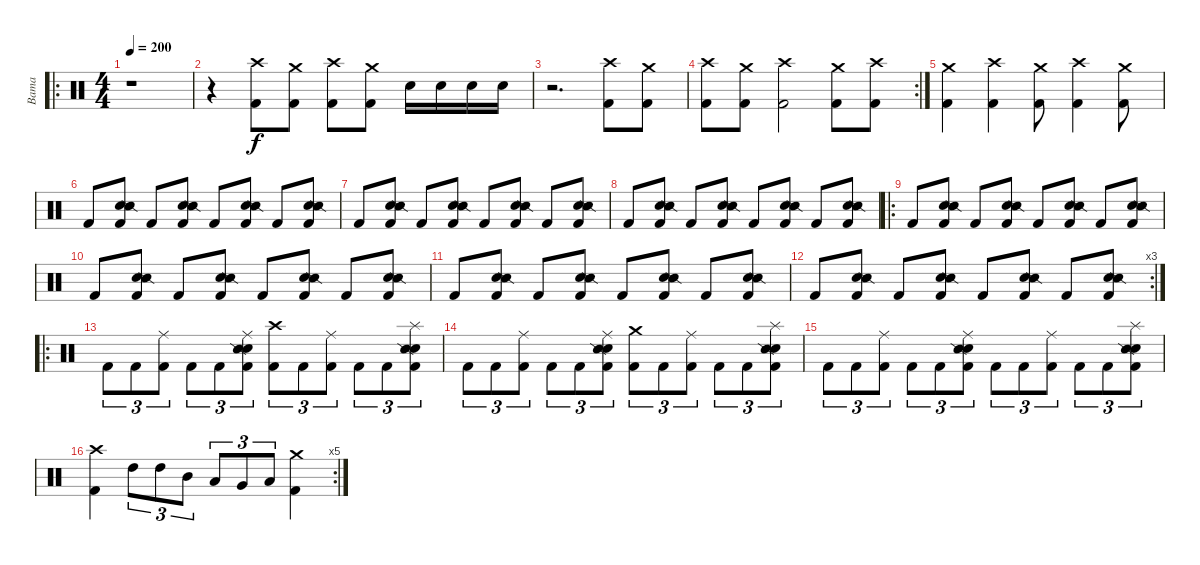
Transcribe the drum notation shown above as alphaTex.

\track ("Bama" "Bama") {instrument percussion}
\staff {score}
\articulation defaults
\ro
\ts (4 4)
\tempo 200
\clef neutral
\ks c
r.1{dy f} |
r.4 ("Crash high (hit)" "Kick (hit) 2").8 ("Crash medium (hit)" "Kick (hit) 2").8 ("Crash high (hit)" "Kick (hit) 2").8 ("Crash medium (hit)" "Kick (hit) 2").8 "Electric Snare (hit)".16 "Electric Snare (hit)".16 "Electric Snare (hit)".16 "Electric Snare (hit)".16 |
r.2{d} ("Crash high (hit)" "Kick (hit) 2").8 ("Crash medium (hit)" "Kick (hit) 2").8 |
\rc 2
("Crash high (hit)" "Kick (hit) 2").8 ("Crash medium (hit)" "Kick (hit) 2").8 ("Crash high (hit)" "Kick (hit) 2").2 ("Crash medium (hit)" "Kick (hit) 2").8 ("Crash high (hit)" "Kick (hit) 2").8 |
("Crash medium (hit)" "Kick (hit) 2").4 ("Crash high (hit)" "Kick (hit) 2").4 ("Crash medium (hit)" "Kick (hit) 2").8 ("Crash high (hit)" "Kick (hit) 2").4 ("Crash medium (hit)" "Kick (hit) 2").8 |
"Kick (hit) 2".8 ("Electric Snare (hit)" "Snare (side stick) 2" "Kick (hit) 2").8 "Kick (hit) 2".8 ("Electric Snare (hit)" "Snare (side stick) 2" "Kick (hit) 2").8 "Kick (hit) 2".8 ("Electric Snare (hit)" "Snare (side stick) 2" "Kick (hit) 2").8 "Kick (hit) 2".8 ("Electric Snare (hit)" "Snare (side stick) 2" "Kick (hit) 2").8 |
"Kick (hit) 2".8 ("Electric Snare (hit)" "Snare (side stick) 2" "Kick (hit) 2").8 "Kick (hit) 2".8 ("Electric Snare (hit)" "Snare (side stick) 2" "Kick (hit) 2").8 "Kick (hit) 2".8 ("Electric Snare (hit)" "Snare (side stick) 2" "Kick (hit) 2").8 "Kick (hit) 2".8 ("Electric Snare (hit)" "Snare (side stick) 2" "Kick (hit) 2").8 |
"Kick (hit) 2".8 ("Electric Snare (hit)" "Snare (side stick) 2" "Kick (hit) 2").8 "Kick (hit) 2".8 ("Electric Snare (hit)" "Snare (side stick) 2" "Kick (hit) 2").8 "Kick (hit) 2".8 ("Electric Snare (hit)" "Snare (side stick) 2" "Kick (hit) 2").8 "Kick (hit) 2".8 ("Electric Snare (hit)" "Snare (side stick) 2" "Kick (hit) 2").8 |
\ro "Kick (hit) 2".8
("Electric Snare (hit)" "Snare (side stick) 2" "Kick (hit) 2").8 "Kick (hit) 2".8 ("Electric Snare (hit)" "Snare (side stick) 2" "Kick (hit) 2").8 "Kick (hit) 2".8 ("Electric Snare (hit)" "Snare (side stick) 2" "Kick (hit) 2").8 "Kick (hit) 2".8 ("Electric Snare (hit)" "Snare (side stick) 2" "Kick (hit) 2").8 |
"Kick (hit) 2".8 ("Electric Snare (hit)" "Snare (side stick) 2" "Kick (hit) 2").8 "Kick (hit) 2".8 ("Electric Snare (hit)" "Snare (side stick) 2" "Kick (hit) 2").8 "Kick (hit) 2".8 ("Electric Snare (hit)" "Snare (side stick) 2" "Kick (hit) 2").8 "Kick (hit) 2".8 ("Electric Snare (hit)" "Snare (side stick) 2" "Kick (hit) 2").8 |
"Kick (hit) 2".8 ("Electric Snare (hit)" "Snare (side stick) 2" "Kick (hit) 2").8 "Kick (hit) 2".8 ("Electric Snare (hit)" "Snare (side stick) 2" "Kick (hit) 2").8 "Kick (hit) 2".8 ("Electric Snare (hit)" "Snare (side stick) 2" "Kick (hit) 2").8 "Kick (hit) 2".8 ("Electric Snare (hit)" "Snare (side stick) 2" "Kick (hit) 2").8 |
\rc 3 "Kick (hit) 2".8
("Electric Snare (hit)" "Snare (side stick) 2" "Kick (hit) 2").8 "Kick (hit) 2".8 ("Electric Snare (hit)" "Snare (side stick) 2" "Kick (hit) 2").8 "Kick (hit) 2".8 ("Electric Snare (hit)" "Snare (side stick) 2" "Kick (hit) 2").8 "Kick (hit) 2".8 ("Electric Snare (hit)" "Snare (side stick) 2" "Kick (hit) 2").8 |
\ro "Kick (hit) 2".8{tu (3 2)} "Kick (hit) 2".8{tu (3 2)}
("Ride (middle)" "Kick (hit) 2").8{tu (3 2)} "Kick (hit) 2".8{tu (3 2)} "Kick (hit) 2".8{tu (3 2)} ("Ride (middle)" "Electric Snare (hit)" "Snare (side stick) 2" "Kick (hit) 2").8{tu (3 2)} ("Crash high (hit)" "Kick (hit) 2").8{tu (3 2)} "Kick (hit) 2".8{tu (3 2)} ("Ride (middle)" "Kick (hit) 2").8{tu (3 2)} "Kick (hit) 2".8{tu (3 2)} "Kick (hit) 2".8{tu (3 2)} ("Splash (hit)" "Electric Snare (hit)" "Snare (side stick) 2" "Kick (hit) 2").8{tu (3 2)} |
"Kick (hit) 2".8{tu (3 2)} "Kick (hit) 2".8{tu (3 2)} ("Ride (middle)" "Kick (hit) 2").8{tu (3 2)} "Kick (hit) 2".8{tu (3 2)} "Kick (hit) 2".8{tu (3 2)} ("Ride (middle)" "Electric Snare (hit)" "Snare (side stick) 2" "Kick (hit) 2").8{tu (3 2)} ("Crash medium (hit)" "Kick (hit) 2").8{tu (3 2)} "Kick (hit) 2".8{tu (3 2)} ("Ride (middle)" "Kick (hit) 2").8{tu (3 2)} "Kick (hit) 2".8{tu (3 2)} "Kick (hit) 2".8{tu (3 2)} ("Splash (hit)" "Electric Snare (hit)" "Snare (side stick) 2" "Kick (hit) 2").8{tu (3 2)} |
"Kick (hit) 2".8{tu (3 2)} "Kick (hit) 2".8{tu (3 2)} ("Ride (middle)" "Kick (hit) 2").8{tu (3 2)} "Kick (hit) 2".8{tu (3 2)} "Kick (hit) 2".8{tu (3 2)} ("Ride (middle)" "Electric Snare (hit)" "Snare (side stick) 2" "Kick (hit) 2").8{tu (3 2)} "Kick (hit) 2".8{tu (3 2)} "Kick (hit) 2".8{tu (3 2)} ("Ride (middle)" "Kick (hit) 2").8{tu (3 2)} "Kick (hit) 2".8{tu (3 2)} "Kick (hit) 2".8{tu (3 2)} ("Splash (hit)" "Electric Snare (hit)" "Snare (side stick) 2" "Kick (hit) 2").8{tu (3 2)} |
\rc 5
("Crash high (hit)" "Kick (hit) 2").4 "High Tom (hit)".8{tu (3 2)} "High Tom (hit)".8{tu (3 2)} "Mid Tom (hit)".8{tu (3 2)} "Low Tom (hit)".8{tu (3 2)} "Very Low Tom (hit)".8{tu (3 2)} "Low Floor Tom (hit)".8{tu (3 2)} ("Crash medium (hit)" "Kick (hit) 2").4
